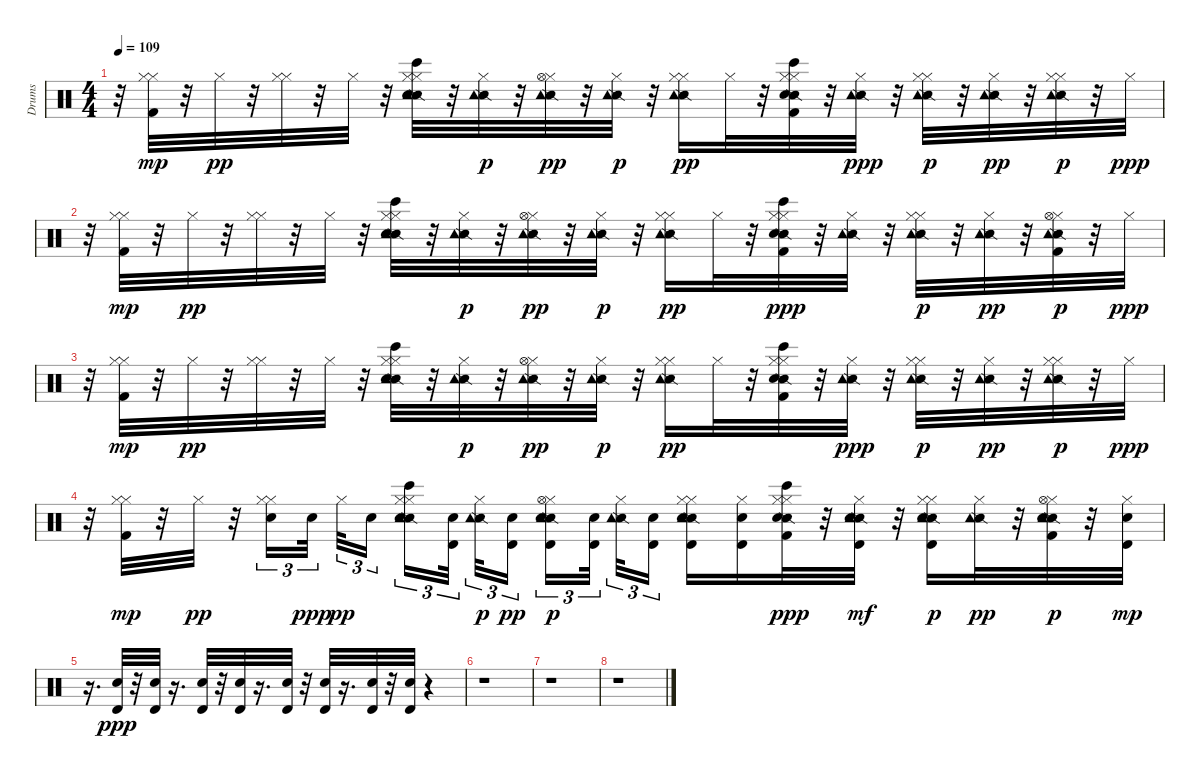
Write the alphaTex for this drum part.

\track ("Drums" "Drums") {instrument percussion}
\staff {score}
\articulation defaults
\ts (4 4)
\tempo 109
\clef neutral
\ks c
r.32{dy ppp} ("Kick (hit) 2" "Hi-Hat (closed)" "Hi-Hat (closed)").32{dy mp} r.32 "Hi-Hat (closed)".32{dy pp} r.32 ("Hi-Hat (closed)" "Hi-Hat (closed)").32 r.32 "Hi-Hat (closed)".32 r.32 ("Hi-Hat (closed)" "Bongo High (hit)" "Snare (side stick) 2" "Electric Snare (hit)" "Hi-Hat (closed)" "Tambourine (hit)").32 r.32 ("Hi-Hat (closed)" "Snare (side stick) 2" "Tambourine (hit)").32{dy p} r.32 ("Hi-Hat (closed)" "Snare (side stick) 2" "Hi-Hat (open)" "Tambourine (hit)").32{dy pp} r.32 ("Hi-Hat (closed)" "Snare (side stick) 2" "Tambourine (hit)").32{dy p} r.32 ("Hi-Hat (closed)" "Snare (side stick) 2" "Hi-Hat (closed)" "Tambourine (hit)").16{dy pp} "Hi-Hat (closed)".32 r.32 ("Kick (hit) 2" "Hi-Hat (closed)" "Bongo High (hit)" "Snare (side stick) 2" "Electric Snare (hit)" "Hi-Hat (closed)").32 r.32 ("Hi-Hat (closed)" "Snare (side stick) 2" "Tambourine (hit)").32{dy ppp} r.32 ("Hi-Hat (closed)" "Snare (side stick) 2" "Hi-Hat (closed)" "Tambourine (hit)").32{dy p} r.32 ("Hi-Hat (closed)" "Snare (side stick) 2" "Tambourine (hit)").32{dy pp} r.32 ("Hi-Hat (closed)" "Snare (side stick) 2" "Hi-Hat (closed)" "Tambourine (hit)").32{dy p} r.32 "Hi-Hat (closed)".32{dy ppp} |
r.32 ("Kick (hit) 2" "Hi-Hat (closed)" "Hi-Hat (closed)").32{dy mp} r.32 "Hi-Hat (closed)".32{dy pp} r.32 ("Hi-Hat (closed)" "Hi-Hat (closed)").32 r.32 "Hi-Hat (closed)".32 r.32 ("Hi-Hat (closed)" "Bongo High (hit)" "Snare (side stick) 2" "Electric Snare (hit)" "Hi-Hat (closed)" "Tambourine (hit)").32 r.32 ("Hi-Hat (closed)" "Snare (side stick) 2" "Tambourine (hit)").32{dy p} r.32 ("Hi-Hat (closed)" "Snare (side stick) 2" "Hi-Hat (open)" "Tambourine (hit)").32{dy pp} r.32 ("Hi-Hat (closed)" "Snare (side stick) 2" "Tambourine (hit)").32{dy p} r.32 ("Hi-Hat (closed)" "Snare (side stick) 2" "Hi-Hat (closed)" "Tambourine (hit)").16{dy pp} "Hi-Hat (closed)".32 r.32 ("Kick (hit) 2" "Hi-Hat (closed)" "Bongo High (hit)" "Snare (side stick) 2" "Electric Snare (hit)" "Hi-Hat (closed)").32{dy ppp} r.32 ("Hi-Hat (closed)" "Snare (side stick) 2" "Tambourine (hit)").32 r.32 ("Hi-Hat (closed)" "Snare (side stick) 2" "Hi-Hat (closed)" "Tambourine (hit)").32{dy p} r.32 ("Hi-Hat (closed)" "Snare (side stick) 2" "Tambourine (hit)").32{dy pp} r.32 ("Kick (hit) 2" "Hi-Hat (closed)" "Snare (side stick) 2" "Hi-Hat (open)" "Tambourine (hit)").32{dy p} r.32 "Hi-Hat (closed)".32{dy ppp} |
r.32 ("Kick (hit) 2" "Hi-Hat (closed)" "Hi-Hat (closed)").32{dy mp} r.32 "Hi-Hat (closed)".32{dy pp} r.32 ("Hi-Hat (closed)" "Hi-Hat (closed)").32 r.32 "Hi-Hat (closed)".32 r.32 ("Hi-Hat (closed)" "Bongo High (hit)" "Snare (side stick) 2" "Electric Snare (hit)" "Hi-Hat (closed)" "Tambourine (hit)").32 r.32 ("Hi-Hat (closed)" "Snare (side stick) 2" "Tambourine (hit)").32{dy p} r.32 ("Hi-Hat (closed)" "Snare (side stick) 2" "Hi-Hat (open)" "Tambourine (hit)").32{dy pp} r.32 ("Hi-Hat (closed)" "Snare (side stick) 2" "Tambourine (hit)").32{dy p} r.32 ("Hi-Hat (closed)" "Snare (side stick) 2" "Hi-Hat (closed)" "Tambourine (hit)").16{dy pp} "Hi-Hat (closed)".32 r.32 ("Kick (hit) 2" "Hi-Hat (closed)" "Bongo High (hit)" "Snare (side stick) 2" "Electric Snare (hit)" "Hi-Hat (closed)").32 r.32 ("Hi-Hat (closed)" "Snare (side stick) 2" "Tambourine (hit)").32{dy ppp} r.32 ("Hi-Hat (closed)" "Snare (side stick) 2" "Hi-Hat (closed)" "Tambourine (hit)").32{dy p} r.32 ("Hi-Hat (closed)" "Snare (side stick) 2" "Tambourine (hit)").32{dy pp} r.32 ("Hi-Hat (closed)" "Snare (side stick) 2" "Hi-Hat (closed)" "Tambourine (hit)").32{dy p} r.32 "Hi-Hat (closed)".32{dy ppp} |
r.32 ("Kick (hit) 2" "Hi-Hat (closed)" "Hi-Hat (closed)").32{dy mp} r.32 "Hi-Hat (closed)".32{dy pp} r.32 ("Hi-Hat (closed)" "Electric Snare (hit)" "Hi-Hat (closed)").16{tu (3 2)} "Electric Snare (hit)".32{tu (3 2) dy ppp beam splitsecondary} "Hi-Hat (closed)".32{tu (3 2) dy pp} "Electric Snare (hit)".16{tu (3 2)} ("Hi-Hat (closed)" "Bongo High (hit)" "Snare (side stick) 2" "Electric Snare (hit)" "Hi-Hat (closed)" "Tambourine (hit)").16{tu (3 2)} ("Electric Snare (hit)" "Timbale high (hit)").32{tu (3 2) beam splitsecondary} ("Hi-Hat (closed)" "Snare (side stick) 2" "Tambourine (hit)").32{tu (3 2) dy p} ("Electric Snare (hit)" "Timbale high (hit)").16{tu (3 2) dy pp beam splitsecondary} ("Hi-Hat (closed)" "Snare (side stick) 2" "Electric Snare (hit)" "Hi-Hat (open)" "Tambourine (hit)" "Timbale high (hit)").16{tu (3 2) dy p} ("Electric Snare (hit)" "Timbale high (hit)").32{tu (3 2) beam splitsecondary} ("Hi-Hat (closed)" "Snare (side stick) 2" "Tambourine (hit)").32{tu (3 2)} ("Electric Snare (hit)" "Timbale high (hit)").16{tu (3 2)} ("Hi-Hat (closed)" "Snare (side stick) 2" "Electric Snare (hit)" "Hi-Hat (closed)" "Tambourine (hit)" "Timbale high (hit)").16 ("Hi-Hat (closed)" "Electric Snare (hit)" "Timbale high (hit)").16 ("Kick (hit) 2" "Hi-Hat (closed)" "Bongo High (hit)" "Snare (side stick) 2" "Electric Snare (hit)" "Hi-Hat (closed)").32{dy ppp} r.32 ("Hi-Hat (closed)" "Snare (side stick) 2" "Electric Snare (hit)" "Tambourine (hit)" "Timbale high (hit)").32{dy mf} r.32 ("Hi-Hat (closed)" "Snare (side stick) 2" "Electric Snare (hit)" "Hi-Hat (closed)" "Tambourine (hit)" "Timbale high (hit)").16{dy p} ("Hi-Hat (closed)" "Snare (side stick) 2" "Tambourine (hit)").32{dy pp} r.32 ("Kick (hit) 2" "Hi-Hat (closed)" "Snare (side stick) 2" "Electric Snare (hit)" "Hi-Hat (open)" "Tambourine (hit)").32{dy p} r.32 ("Hi-Hat (closed)" "Electric Snare (hit)" "Timbale high (hit)").32{dy mp} |
r.16{d} ("Electric Snare (hit)" "Timbale high (hit)").32{dy ppp} r.32 ("Electric Snare (hit)" "Timbale high (hit)").32 r.16{d} ("Electric Snare (hit)" "Timbale high (hit)").32 r.32 ("Electric Snare (hit)" "Timbale high (hit)").32 r.16{d} ("Electric Snare (hit)" "Timbale high (hit)").32 r.32 ("Electric Snare (hit)" "Timbale high (hit)").32 r.16{d} ("Electric Snare (hit)" "Timbale high (hit)").32 r.32 ("Electric Snare (hit)" "Timbale high (hit)").32 r.4 |
r.1 |
r.1 |
r.1
